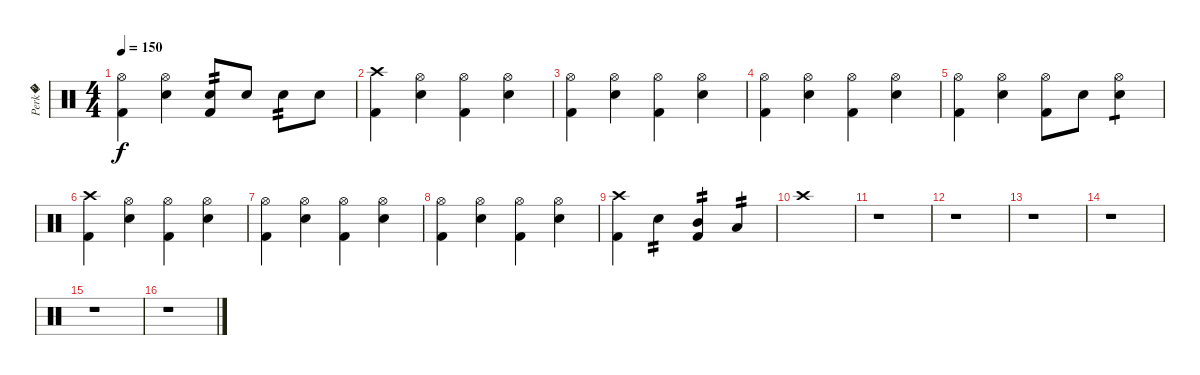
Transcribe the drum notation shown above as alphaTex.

\track ("Perk�" "Perk�") {instrument percussion}
\staff {score}
\articulation defaults
\ts (4 4)
\tempo 150
\clef neutral
\ks c
("Hi-Hat (open)" "Kick (hit) 2").4{dy f} ("Hi-Hat (open)" "Snare (hit) 2").4 ("Snare (hit) 2" "Kick (hit) 2").8{tp 2} "Snare (hit) 2".8 "Snare (hit) 2".8{tp 2} "Snare (hit) 2".8 |
("Crash high (hit)" "Kick (hit) 2").4 ("Hi-Hat (open)" "Snare (hit) 2").4 ("Hi-Hat (open)" "Kick (hit) 2").4 ("Hi-Hat (open)" "Snare (hit) 2").4 |
("Hi-Hat (open)" "Kick (hit) 2").4 ("Hi-Hat (open)" "Snare (hit) 2").4 ("Hi-Hat (open)" "Kick (hit) 2").4 ("Hi-Hat (open)" "Snare (hit) 2").4 |
("Hi-Hat (open)" "Kick (hit) 2").4 ("Hi-Hat (open)" "Snare (hit) 2").4 ("Hi-Hat (open)" "Kick (hit) 2").4 ("Hi-Hat (open)" "Snare (hit) 2").4 |
("Hi-Hat (open)" "Kick (hit) 2").4 ("Hi-Hat (open)" "Snare (hit) 2").4 ("Hi-Hat (open)" "Kick (hit) 2").8 "Snare (hit) 2".8 ("Hi-Hat (open)" "Snare (hit) 2").4{tp 1} |
("Crash high (hit)" "Kick (hit) 2").4 ("Hi-Hat (open)" "Snare (hit) 2").4 ("Hi-Hat (open)" "Kick (hit) 2").4 ("Hi-Hat (open)" "Snare (hit) 2").4 |
("Hi-Hat (open)" "Kick (hit) 2").4 ("Hi-Hat (open)" "Snare (hit) 2").4 ("Hi-Hat (open)" "Kick (hit) 2").4 ("Hi-Hat (open)" "Snare (hit) 2").4 |
("Hi-Hat (open)" "Kick (hit) 2").4 ("Hi-Hat (open)" "Snare (hit) 2").4 ("Hi-Hat (open)" "Kick (hit) 2").4 ("Hi-Hat (open)" "Snare (hit) 2").4 |
("Crash high (hit)" "Kick (hit) 2").4 "Snare (hit) 2".4{tp 2} ("Mid Tom (hit)" "Kick (hit) 2").4{tp 2} "Low Tom (hit)".4{tp 2} |
"Crash high (hit)".1 |
r.1 |
r.1 |
r.1 |
r.1 |
r.1 |
r.1
